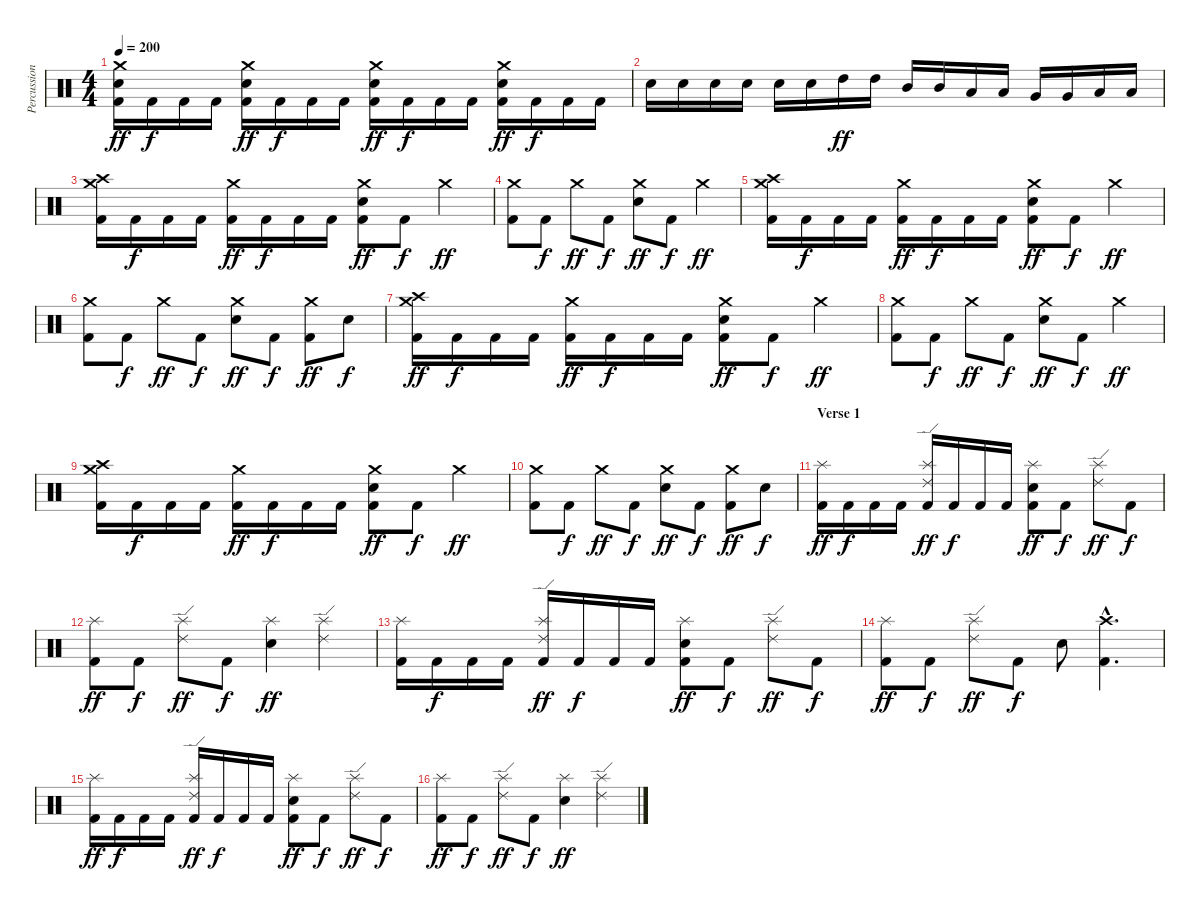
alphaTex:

\track ("Percussions" "Percussion") {instrument percussion}
\staff {score}
\articulation defaults
\ts (4 4)
\tempo 200
\clef neutral
\ks c
("Crash medium (hit)" "Electric Snare (hit)" "Kick (hit) 2").16{dy ff} "Kick (hit) 2".16{dy f} "Kick (hit) 2".16 "Kick (hit) 2".16 ("Crash medium (hit)" "Electric Snare (hit)" "Kick (hit) 2").16{dy ff} "Kick (hit) 2".16{dy f} "Kick (hit) 2".16 "Kick (hit) 2".16 ("Crash medium (hit)" "Electric Snare (hit)" "Kick (hit) 2").16{dy ff} "Kick (hit) 2".16{dy f} "Kick (hit) 2".16 "Kick (hit) 2".16 ("Crash medium (hit)" "Electric Snare (hit)" "Kick (hit) 2").16{dy ff} "Kick (hit) 2".16{dy f} "Kick (hit) 2".16 "Kick (hit) 2".16 |
"Electric Snare (hit)".16 "Electric Snare (hit)".16 "Electric Snare (hit)".16 "Electric Snare (hit)".16 "Electric Snare (hit)".16 "Electric Snare (hit)".16 "High Tom (hit)".16{dy ff} "High Tom (hit)".16 "Mid Tom (hit)".16 "Mid Tom (hit)".16 "Low Tom (hit)".16 "Low Tom (hit)".16 "Very Low Tom (hit)".16 "Very Low Tom (hit)".16 "Low Floor Tom (hit)".16 "Low Floor Tom (hit)".16 |
("Crash high (hit)" "Crash medium (hit)" "Kick (hit) 2").16 "Kick (hit) 2".16{dy f} "Kick (hit) 2".16 "Kick (hit) 2".16 ("Crash medium (hit)" "Kick (hit) 2").16{dy ff} "Kick (hit) 2".16{dy f} "Kick (hit) 2".16 "Kick (hit) 2".16 ("Crash medium (hit)" "Electric Snare (hit)" "Kick (hit) 2").8{dy ff} "Kick (hit) 2".8{dy f} "Crash medium (hit)".4{dy ff} |
("Crash medium (hit)" "Kick (hit) 2").8 "Kick (hit) 2".8{dy f} "Crash medium (hit)".8{dy ff} "Kick (hit) 2".8{dy f} ("Crash medium (hit)" "Electric Snare (hit)").8{dy ff} "Kick (hit) 2".8{dy f} "Crash medium (hit)".4{dy ff} |
("Crash high (hit)" "Crash medium (hit)" "Kick (hit) 2").16 "Kick (hit) 2".16{dy f} "Kick (hit) 2".16 "Kick (hit) 2".16 ("Crash medium (hit)" "Kick (hit) 2").16{dy ff} "Kick (hit) 2".16{dy f} "Kick (hit) 2".16 "Kick (hit) 2".16 ("Crash medium (hit)" "Electric Snare (hit)" "Kick (hit) 2").8{dy ff} "Kick (hit) 2".8{dy f} "Crash medium (hit)".4{dy ff} |
("Crash medium (hit)" "Kick (hit) 2").8 "Kick (hit) 2".8{dy f} "Crash medium (hit)".8{dy ff} "Kick (hit) 2".8{dy f} ("Crash medium (hit)" "Electric Snare (hit)").8{dy ff} "Kick (hit) 2".8{dy f} ("Crash medium (hit)" "Kick (hit) 2").8{dy ff} "Electric Snare (hit)".8{dy f} |
("Crash high (hit)" "Crash medium (hit)" "Kick (hit) 2").16{dy ff} "Kick (hit) 2".16{dy f} "Kick (hit) 2".16 "Kick (hit) 2".16 ("Crash medium (hit)" "Kick (hit) 2").16{dy ff} "Kick (hit) 2".16{dy f} "Kick (hit) 2".16 "Kick (hit) 2".16 ("Crash medium (hit)" "Electric Snare (hit)" "Kick (hit) 2").8{dy ff} "Kick (hit) 2".8{dy f} "Crash medium (hit)".4{dy ff} |
("Crash medium (hit)" "Kick (hit) 2").8 "Kick (hit) 2".8{dy f} "Crash medium (hit)".8{dy ff} "Kick (hit) 2".8{dy f} ("Crash medium (hit)" "Electric Snare (hit)").8{dy ff} "Kick (hit) 2".8{dy f} "Crash medium (hit)".4{dy ff} |
("Crash high (hit)" "Crash medium (hit)" "Kick (hit) 2").16 "Kick (hit) 2".16{dy f} "Kick (hit) 2".16 "Kick (hit) 2".16 ("Crash medium (hit)" "Kick (hit) 2").16{dy ff} "Kick (hit) 2".16{dy f} "Kick (hit) 2".16 "Kick (hit) 2".16 ("Crash medium (hit)" "Electric Snare (hit)" "Kick (hit) 2").8{dy ff} "Kick (hit) 2".8{dy f} "Crash medium (hit)".4{dy ff} |
("Crash medium (hit)" "Kick (hit) 2").8 "Kick (hit) 2".8{dy f} "Crash medium (hit)".8{dy ff} "Kick (hit) 2".8{dy f} ("Crash medium (hit)" "Electric Snare (hit)").8{dy ff} "Kick (hit) 2".8{dy f} ("Crash medium (hit)" "Kick (hit) 2").8{dy ff} "Electric Snare (hit)".8{dy f} |
\section ("" "Verse 1")
("Splash (hit)" "Kick (hit) 2").16{dy ff} "Kick (hit) 2".16{dy f} "Kick (hit) 2".16 "Kick (hit) 2".16 ("Ride (edge) 2" "Splash (hit)" "Kick (hit) 2").16{dy ff} "Kick (hit) 2".16{dy f} "Kick (hit) 2".16 "Kick (hit) 2".16 ("Splash (hit)" "Electric Snare (hit)" "Kick (hit) 2").8{dy ff} "Kick (hit) 2".8{dy f} ("Ride (edge) 2" "Splash (hit)").8{dy ff} "Kick (hit) 2".8{dy f} |
("Splash (hit)" "Kick (hit) 2").8{dy ff} "Kick (hit) 2".8{dy f} ("Ride (edge) 2" "Splash (hit)").8{dy ff} "Kick (hit) 2".8{dy f} ("Splash (hit)" "Electric Snare (hit)").4{dy ff} ("Ride (edge) 2" "Splash (hit)").4 |
("Splash (hit)" "Kick (hit) 2").16 "Kick (hit) 2".16{dy f} "Kick (hit) 2".16 "Kick (hit) 2".16 ("Ride (edge) 2" "Splash (hit)" "Kick (hit) 2").16{dy ff} "Kick (hit) 2".16{dy f} "Kick (hit) 2".16 "Kick (hit) 2".16 ("Splash (hit)" "Electric Snare (hit)" "Kick (hit) 2").8{dy ff} "Kick (hit) 2".8{dy f} ("Ride (edge) 2" "Splash (hit)").8{dy ff} "Kick (hit) 2".8{dy f} |
("Splash (hit)" "Kick (hit) 2").8{dy ff} "Kick (hit) 2".8{dy f} ("Ride (edge) 2" "Splash (hit)").8{dy ff} "Kick (hit) 2".8{dy f} "Electric Snare (hit)".8 ("Crash high (hit)"{hac} "Kick (hit) 2"{hac}).4{d} |
("Splash (hit)" "Kick (hit) 2").16{dy ff} "Kick (hit) 2".16{dy f} "Kick (hit) 2".16 "Kick (hit) 2".16 ("Ride (edge) 2" "Splash (hit)" "Kick (hit) 2").16{dy ff} "Kick (hit) 2".16{dy f} "Kick (hit) 2".16 "Kick (hit) 2".16 ("Splash (hit)" "Electric Snare (hit)" "Kick (hit) 2").8{dy ff} "Kick (hit) 2".8{dy f} ("Ride (edge) 2" "Splash (hit)").8{dy ff} "Kick (hit) 2".8{dy f} |
("Splash (hit)" "Kick (hit) 2").8{dy ff} "Kick (hit) 2".8{dy f} ("Ride (edge) 2" "Splash (hit)").8{dy ff} "Kick (hit) 2".8{dy f} ("Splash (hit)" "Electric Snare (hit)").4{dy ff} ("Ride (edge) 2" "Splash (hit)").4
